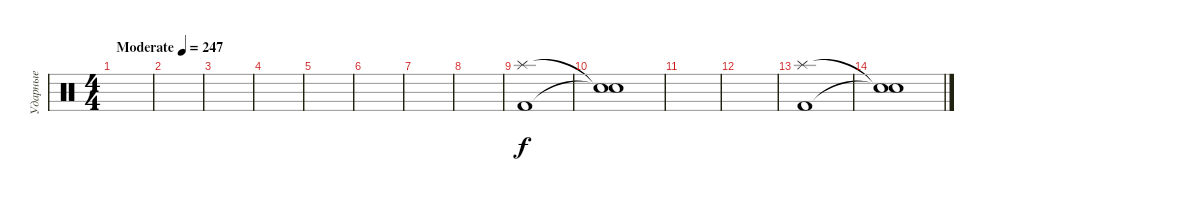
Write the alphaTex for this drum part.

\track ("Ударные" "Ударные") {instrument percussion}
\staff {score}
\articulation defaults
\ts (4 4)
\tempo (247 "Moderate")
\clef neutral
\ks c
|
|
|
|
|
|
|
|
("Kick (hit) 2" "Splash (hit)").1 |
("Snare (hit)"{t} "Snare (hit)"{t}).1 |
|
|
("Kick (hit) 2" "Splash (hit)").1 |
("Snare (hit)"{t} "Snare (hit)"{t}).1
